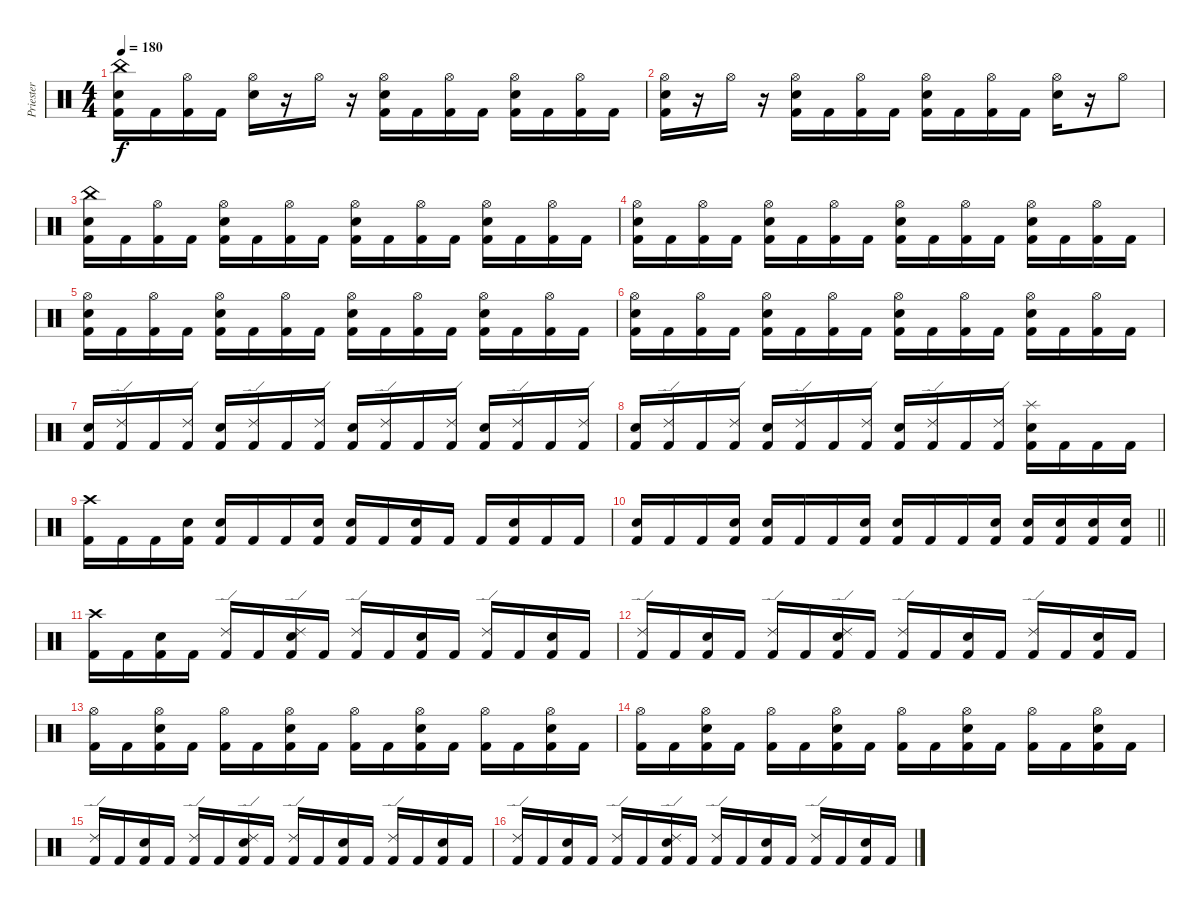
\track ("Priester" "Priester") {instrument percussion}
\staff {score}
\articulation defaults
\ts (4 4)
\tempo 180
\clef neutral
\ks c
("China (hit)" "Electric Snare (hit)" "Kick (hit) 2").16{dy f} "Kick (hit) 2".16 ("Hi-Hat (open)" "Kick (hit) 2").16 "Kick (hit) 2".16 ("Hi-Hat (open)" "Electric Snare (hit)").16 r.16 "Hi-Hat (open)".16 r.16 ("Hi-Hat (open)" "Electric Snare (hit)" "Kick (hit) 2").16 "Kick (hit) 2".16 ("Hi-Hat (open)" "Kick (hit) 2").16 "Kick (hit) 2".16 ("Hi-Hat (open)" "Electric Snare (hit)" "Kick (hit) 2").16 "Kick (hit) 2".16 ("Hi-Hat (open)" "Kick (hit) 2").16 "Kick (hit) 2".16 |
("Hi-Hat (open)" "Electric Snare (hit)" "Kick (hit) 2").16 r.16 "Hi-Hat (open)".16 r.16 ("Hi-Hat (open)" "Electric Snare (hit)" "Kick (hit) 2").16 "Kick (hit) 2".16 ("Hi-Hat (open)" "Kick (hit) 2").16 "Kick (hit) 2".16 ("Hi-Hat (open)" "Electric Snare (hit)" "Kick (hit) 2").16 "Kick (hit) 2".16 ("Hi-Hat (open)" "Kick (hit) 2").16 "Kick (hit) 2".16 ("Hi-Hat (open)" "Electric Snare (hit)").16 r.16 "Hi-Hat (open)".8 |
("China (hit)" "Electric Snare (hit)" "Kick (hit) 2").16 "Kick (hit) 2".16 ("Hi-Hat (open)" "Kick (hit) 2").16 "Kick (hit) 2".16 ("Hi-Hat (open)" "Electric Snare (hit)" "Kick (hit) 2").16 "Kick (hit) 2".16 ("Hi-Hat (open)" "Kick (hit) 2").16 "Kick (hit) 2".16 ("Hi-Hat (open)" "Electric Snare (hit)" "Kick (hit) 2").16 "Kick (hit) 2".16 ("Hi-Hat (open)" "Kick (hit) 2").16 "Kick (hit) 2".16 ("Hi-Hat (open)" "Electric Snare (hit)" "Kick (hit) 2").16 "Kick (hit) 2".16 ("Hi-Hat (open)" "Kick (hit) 2").16 "Kick (hit) 2".16 |
("Hi-Hat (open)" "Electric Snare (hit)" "Kick (hit) 2").16 "Kick (hit) 2".16 ("Hi-Hat (open)" "Kick (hit) 2").16 "Kick (hit) 2".16 ("Hi-Hat (open)" "Electric Snare (hit)" "Kick (hit) 2").16 "Kick (hit) 2".16 ("Hi-Hat (open)" "Kick (hit) 2").16 "Kick (hit) 2".16 ("Hi-Hat (open)" "Electric Snare (hit)" "Kick (hit) 2").16 "Kick (hit) 2".16 ("Hi-Hat (open)" "Kick (hit) 2").16 "Kick (hit) 2".16 ("Hi-Hat (open)" "Electric Snare (hit)" "Kick (hit) 2").16 "Kick (hit) 2".16 ("Hi-Hat (open)" "Kick (hit) 2").16 "Kick (hit) 2".16 |
("Hi-Hat (open)" "Electric Snare (hit)" "Kick (hit) 2").16 "Kick (hit) 2".16 ("Hi-Hat (open)" "Kick (hit) 2").16 "Kick (hit) 2".16 ("Hi-Hat (open)" "Electric Snare (hit)" "Kick (hit) 2").16 "Kick (hit) 2".16 ("Hi-Hat (open)" "Kick (hit) 2").16 "Kick (hit) 2".16 ("Hi-Hat (open)" "Electric Snare (hit)" "Kick (hit) 2").16 "Kick (hit) 2".16 ("Hi-Hat (open)" "Kick (hit) 2").16 "Kick (hit) 2".16 ("Hi-Hat (open)" "Electric Snare (hit)" "Kick (hit) 2").16 "Kick (hit) 2".16 ("Hi-Hat (open)" "Kick (hit) 2").16 "Kick (hit) 2".16 |
("Hi-Hat (open)" "Electric Snare (hit)" "Kick (hit) 2").16 "Kick (hit) 2".16 ("Hi-Hat (open)" "Kick (hit) 2").16 "Kick (hit) 2".16 ("Hi-Hat (open)" "Electric Snare (hit)" "Kick (hit) 2").16 "Kick (hit) 2".16 ("Hi-Hat (open)" "Kick (hit) 2").16 "Kick (hit) 2".16 ("Hi-Hat (open)" "Electric Snare (hit)" "Kick (hit) 2").16 "Kick (hit) 2".16 ("Hi-Hat (open)" "Kick (hit) 2").16 "Kick (hit) 2".16 ("Hi-Hat (open)" "Electric Snare (hit)" "Kick (hit) 2").16 "Kick (hit) 2".16 ("Hi-Hat (open)" "Kick (hit) 2").16 "Kick (hit) 2".16 |
("Electric Snare (hit)" "Kick (hit) 2").16 ("Ride (edge) 2" "Kick (hit) 2").16 "Kick (hit) 2".16 ("Ride (edge) 2" "Kick (hit) 2").16 ("Electric Snare (hit)" "Kick (hit) 2").16 ("Ride (edge) 2" "Kick (hit) 2").16 "Kick (hit) 2".16 ("Ride (edge) 2" "Kick (hit) 2").16 ("Electric Snare (hit)" "Kick (hit) 2").16 ("Ride (edge) 2" "Kick (hit) 2").16 "Kick (hit) 2".16 ("Ride (edge) 2" "Kick (hit) 2").16 ("Electric Snare (hit)" "Kick (hit) 2").16 ("Ride (edge) 2" "Kick (hit) 2").16 "Kick (hit) 2".16 ("Ride (edge) 2" "Kick (hit) 2").16 |
("Electric Snare (hit)" "Kick (hit) 2").16 ("Ride (edge) 2" "Kick (hit) 2").16 "Kick (hit) 2".16 ("Ride (edge) 2" "Kick (hit) 2").16 ("Electric Snare (hit)" "Kick (hit) 2").16 ("Ride (edge) 2" "Kick (hit) 2").16 "Kick (hit) 2".16 ("Ride (edge) 2" "Kick (hit) 2").16 ("Electric Snare (hit)" "Kick (hit) 2").16 ("Ride (edge) 2" "Kick (hit) 2").16 "Kick (hit) 2".16 ("Ride (edge) 2" "Kick (hit) 2").16 ("Splash (hit)" "Electric Snare (hit)" "Kick (hit) 2").16 "Kick (hit) 2".16 "Kick (hit) 2".16 "Kick (hit) 2".16 |
("Crash high (hit)" "Kick (hit) 2").16 "Kick (hit) 2".16 "Kick (hit) 2".16 ("Electric Snare (hit)" "Kick (hit) 2").16 ("Electric Snare (hit)" "Kick (hit) 2").16 "Kick (hit) 2".16 "Kick (hit) 2".16 ("Electric Snare (hit)" "Kick (hit) 2").16 ("Electric Snare (hit)" "Kick (hit) 2").16 "Kick (hit) 2".16 ("Electric Snare (hit)" "Kick (hit) 2").16 "Kick (hit) 2".16 "Kick (hit) 2".16 ("Electric Snare (hit)" "Kick (hit) 2").16 "Kick (hit) 2".16 "Kick (hit) 2".16 |
\barLineRight lightlight
("Electric Snare (hit)" "Kick (hit) 2").16 "Kick (hit) 2".16 "Kick (hit) 2".16 ("Electric Snare (hit)" "Kick (hit) 2").16 ("Electric Snare (hit)" "Kick (hit) 2").16 "Kick (hit) 2".16 "Kick (hit) 2".16 ("Electric Snare (hit)" "Kick (hit) 2").16 ("Electric Snare (hit)" "Kick (hit) 2").16 "Kick (hit) 2".16 "Kick (hit) 2".16 ("Electric Snare (hit)" "Kick (hit) 2").16 ("Electric Snare (hit)" "Kick (hit) 2").16 ("Electric Snare (hit)" "Kick (hit) 2").16 ("Electric Snare (hit)" "Kick (hit) 2").16 ("Electric Snare (hit)" "Kick (hit) 2").16 |
("Crash high (hit)" "Kick (hit) 2").16 "Kick (hit) 2".16 ("Electric Snare (hit)" "Kick (hit) 2").16 "Kick (hit) 2".16 ("Ride (edge) 2" "Kick (hit) 2").16 "Kick (hit) 2".16 ("Ride (edge) 2" "Electric Snare (hit)" "Kick (hit) 2").16 "Kick (hit) 2".16 ("Ride (edge) 2" "Kick (hit) 2").16 "Kick (hit) 2".16 ("Electric Snare (hit)" "Kick (hit) 2").16 "Kick (hit) 2".16 ("Ride (edge) 2" "Kick (hit) 2").16 "Kick (hit) 2".16 ("Electric Snare (hit)" "Kick (hit) 2").16 "Kick (hit) 2".16 |
("Ride (edge) 2" "Kick (hit) 2").16 "Kick (hit) 2".16 ("Electric Snare (hit)" "Kick (hit) 2").16 "Kick (hit) 2".16 ("Ride (edge) 2" "Kick (hit) 2").16 "Kick (hit) 2".16 ("Ride (edge) 2" "Electric Snare (hit)" "Kick (hit) 2").16 "Kick (hit) 2".16 ("Ride (edge) 2" "Kick (hit) 2").16 "Kick (hit) 2".16 ("Electric Snare (hit)" "Kick (hit) 2").16 "Kick (hit) 2".16 ("Ride (edge) 2" "Kick (hit) 2").16 "Kick (hit) 2".16 ("Electric Snare (hit)" "Kick (hit) 2").16 "Kick (hit) 2".16 |
("Hi-Hat (open)" "Kick (hit) 2").16 "Kick (hit) 2".16 ("Hi-Hat (open)" "Electric Snare (hit)" "Kick (hit) 2").16 "Kick (hit) 2".16 ("Hi-Hat (open)" "Kick (hit) 2").16 "Kick (hit) 2".16 ("Hi-Hat (open)" "Electric Snare (hit)" "Kick (hit) 2").16 "Kick (hit) 2".16 ("Hi-Hat (open)" "Kick (hit) 2").16 "Kick (hit) 2".16 ("Hi-Hat (open)" "Electric Snare (hit)" "Kick (hit) 2").16 "Kick (hit) 2".16 ("Hi-Hat (open)" "Kick (hit) 2").16 "Kick (hit) 2".16 ("Hi-Hat (open)" "Electric Snare (hit)" "Kick (hit) 2").16 "Kick (hit) 2".16 |
("Hi-Hat (open)" "Kick (hit) 2").16 "Kick (hit) 2".16 ("Hi-Hat (open)" "Electric Snare (hit)" "Kick (hit) 2").16 "Kick (hit) 2".16 ("Hi-Hat (open)" "Kick (hit) 2").16 "Kick (hit) 2".16 ("Hi-Hat (open)" "Electric Snare (hit)" "Kick (hit) 2").16 "Kick (hit) 2".16 ("Hi-Hat (open)" "Kick (hit) 2").16 "Kick (hit) 2".16 ("Hi-Hat (open)" "Electric Snare (hit)" "Kick (hit) 2").16 "Kick (hit) 2".16 ("Hi-Hat (open)" "Kick (hit) 2").16 "Kick (hit) 2".16 ("Hi-Hat (open)" "Electric Snare (hit)" "Kick (hit) 2").16 "Kick (hit) 2".16 |
("Ride (edge) 2" "Kick (hit) 2").16 "Kick (hit) 2".16 ("Electric Snare (hit)" "Kick (hit) 2").16 "Kick (hit) 2".16 ("Ride (edge) 2" "Kick (hit) 2").16 "Kick (hit) 2".16 ("Ride (edge) 2" "Electric Snare (hit)" "Kick (hit) 2").16 "Kick (hit) 2".16 ("Ride (edge) 2" "Kick (hit) 2").16 "Kick (hit) 2".16 ("Electric Snare (hit)" "Kick (hit) 2").16 "Kick (hit) 2".16 ("Ride (edge) 2" "Kick (hit) 2").16 "Kick (hit) 2".16 ("Electric Snare (hit)" "Kick (hit) 2").16 "Kick (hit) 2".16 |
("Ride (edge) 2" "Kick (hit) 2").16 "Kick (hit) 2".16 ("Electric Snare (hit)" "Kick (hit) 2").16 "Kick (hit) 2".16 ("Ride (edge) 2" "Kick (hit) 2").16 "Kick (hit) 2".16 ("Ride (edge) 2" "Electric Snare (hit)" "Kick (hit) 2").16 "Kick (hit) 2".16 ("Ride (edge) 2" "Kick (hit) 2").16 "Kick (hit) 2".16 ("Electric Snare (hit)" "Kick (hit) 2").16 "Kick (hit) 2".16 ("Ride (edge) 2" "Kick (hit) 2").16 "Kick (hit) 2".16 ("Electric Snare (hit)" "Kick (hit) 2").16 "Kick (hit) 2".16
